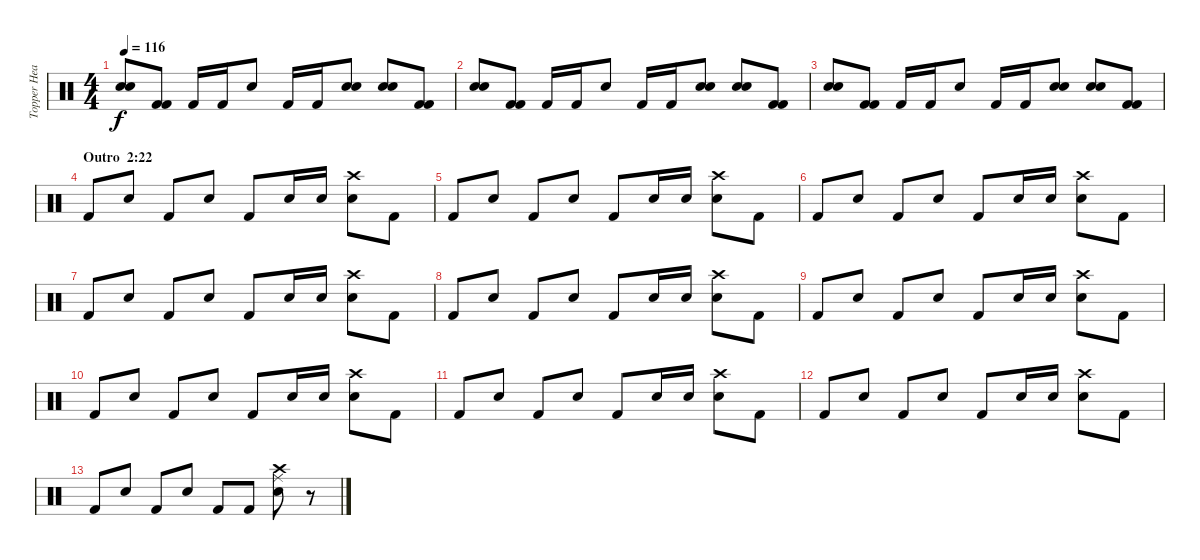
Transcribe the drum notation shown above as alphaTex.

\track ("Topper Headon - Percussion" "Topper Hea") {instrument percussion}
\staff {score}
\articulation defaults
\ts (4 4)
\tempo 116
\clef neutral
\ks c
("Snare (hit) 2" "Snare (hit) 2").8{dy f} ("Kick (hit) 2" "Kick (hit) 2").8 "Kick (hit) 2".16 "Kick (hit) 2".16 "Snare (hit) 2".8 "Kick (hit) 2".16 "Kick (hit) 2".16 ("Snare (hit) 2" "Snare (hit) 2").8 ("Snare (hit) 2" "Snare (hit) 2").8 ("Kick (hit) 2" "Kick (hit) 2").8 |
("Snare (hit) 2" "Snare (hit) 2").8 ("Kick (hit) 2" "Kick (hit) 2").8 "Kick (hit) 2".16 "Kick (hit) 2".16 "Snare (hit) 2".8 "Kick (hit) 2".16 "Kick (hit) 2".16 ("Snare (hit) 2" "Snare (hit) 2").8 ("Snare (hit) 2" "Snare (hit) 2").8 ("Kick (hit) 2" "Kick (hit) 2").8 |
("Snare (hit) 2" "Snare (hit) 2").8 ("Kick (hit) 2" "Kick (hit) 2").8 "Kick (hit) 2".16 "Kick (hit) 2".16 "Snare (hit) 2".8 "Kick (hit) 2".16 "Kick (hit) 2".16 ("Snare (hit) 2" "Snare (hit) 2").8 ("Snare (hit) 2" "Snare (hit) 2").8 ("Kick (hit) 2" "Kick (hit) 2").8 |
\section ("" "Outro  2:22")
"Kick (hit) 2".8 "Snare (hit) 2".8 "Kick (hit) 2".8 "Snare (hit) 2".8 "Kick (hit) 2".8 "Snare (hit) 2".16 "Snare (hit) 2".16 ("Crash high (hit)" "Snare (hit) 2").8 "Kick (hit) 2".8 |
"Kick (hit) 2".8 "Snare (hit) 2".8 "Kick (hit) 2".8 "Snare (hit) 2".8 "Kick (hit) 2".8 "Snare (hit) 2".16 "Snare (hit) 2".16 ("Crash high (hit)" "Snare (hit) 2").8 "Kick (hit) 2".8 |
"Kick (hit) 2".8 "Snare (hit) 2".8 "Kick (hit) 2".8 "Snare (hit) 2".8 "Kick (hit) 2".8 "Snare (hit) 2".16 "Snare (hit) 2".16 ("Crash high (hit)" "Snare (hit) 2").8 "Kick (hit) 2".8 |
"Kick (hit) 2".8 "Snare (hit) 2".8 "Kick (hit) 2".8 "Snare (hit) 2".8 "Kick (hit) 2".8 "Snare (hit) 2".16 "Snare (hit) 2".16 ("Crash high (hit)" "Snare (hit) 2").8 "Kick (hit) 2".8 |
"Kick (hit) 2".8 "Snare (hit) 2".8 "Kick (hit) 2".8 "Snare (hit) 2".8 "Kick (hit) 2".8 "Snare (hit) 2".16 "Snare (hit) 2".16 ("Crash high (hit)" "Snare (hit) 2").8 "Kick (hit) 2".8 |
"Kick (hit) 2".8 "Snare (hit) 2".8 "Kick (hit) 2".8 "Snare (hit) 2".8 "Kick (hit) 2".8 "Snare (hit) 2".16 "Snare (hit) 2".16 ("Crash high (hit)" "Snare (hit) 2").8 "Kick (hit) 2".8 |
"Kick (hit) 2".8 "Snare (hit) 2".8 "Kick (hit) 2".8 "Snare (hit) 2".8 "Kick (hit) 2".8 "Snare (hit) 2".16 "Snare (hit) 2".16 ("Crash high (hit)" "Snare (hit) 2").8 "Kick (hit) 2".8 |
"Kick (hit) 2".8 "Snare (hit) 2".8 "Kick (hit) 2".8 "Snare (hit) 2".8 "Kick (hit) 2".8 "Snare (hit) 2".16 "Snare (hit) 2".16 ("Crash high (hit)" "Snare (hit) 2").8 "Kick (hit) 2".8 |
"Kick (hit) 2".8 "Snare (hit) 2".8 "Kick (hit) 2".8 "Snare (hit) 2".8 "Kick (hit) 2".8 "Snare (hit) 2".16 "Snare (hit) 2".16 ("Crash high (hit)" "Snare (hit) 2").8 "Kick (hit) 2".8 |
"Kick (hit) 2".8 "Snare (hit) 2".8 "Kick (hit) 2".8 "Snare (hit) 2".8 "Kick (hit) 2".8 "Kick (hit) 2".8 ("Crash high (hit)" "Snare (hit) 2" "Ride (middle)").8 r.8
